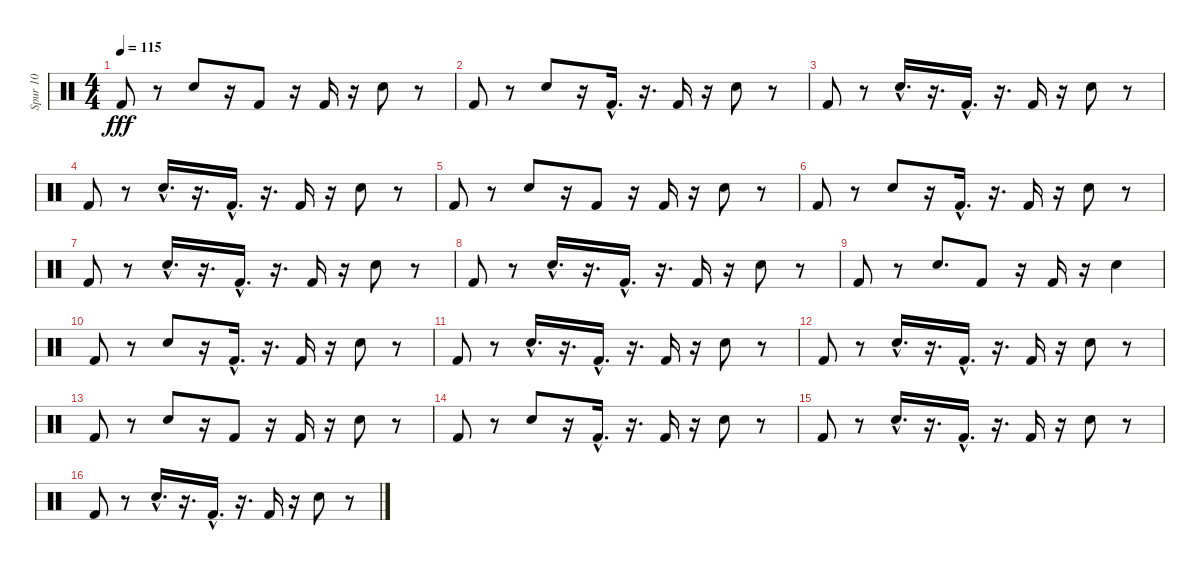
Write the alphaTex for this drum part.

\track ("Spur 10" "Spur 10") {instrument percussion}
\staff {score}
\articulation defaults
\ts (4 4)
\tempo 115
\clef neutral
\ks c "Kick (hit) 2".8{dy fff}
r.8 "Snare (hit) 2".8 r.16 "Kick (hit) 2".8 r.16 "Kick (hit) 2".16 r.16 "Snare (hit) 2".8 r.8 |
"Kick (hit) 2".8 r.8 "Snare (hit) 2".8 r.16 "Kick (hit) 2"{hac}.16{d} r.16{d} "Kick (hit) 2".16 r.16 "Snare (hit) 2".8 r.8 |
"Kick (hit) 2".8 r.8 "Snare (hit) 2"{hac}.16{d} r.16{d} "Kick (hit) 2"{hac}.16{d} r.16{d} "Kick (hit) 2".16 r.16 "Snare (hit) 2".8 r.8 |
"Kick (hit) 2".8 r.8 "Snare (hit) 2"{hac}.16{d} r.16{d} "Kick (hit) 2"{hac}.16{d} r.16{d} "Kick (hit) 2".16 r.16 "Snare (hit) 2".8 r.8 |
"Kick (hit) 2".8 r.8 "Snare (hit) 2".8 r.16 "Kick (hit) 2".8 r.16 "Kick (hit) 2".16 r.16 "Snare (hit) 2".8 r.8 |
"Kick (hit) 2".8 r.8 "Snare (hit) 2".8 r.16 "Kick (hit) 2"{hac}.16{d} r.16{d} "Kick (hit) 2".16 r.16 "Snare (hit) 2".8 r.8 |
"Kick (hit) 2".8 r.8 "Snare (hit) 2"{hac}.16{d} r.16{d} "Kick (hit) 2"{hac}.16{d} r.16{d} "Kick (hit) 2".16 r.16 "Snare (hit) 2".8 r.8 |
"Kick (hit) 2".8 r.8 "Snare (hit) 2"{hac}.16{d} r.16{d} "Kick (hit) 2"{hac}.16{d} r.16{d} "Kick (hit) 2".16 r.16 "Snare (hit) 2".8 r.8 |
"Kick (hit) 2".8 r.8 "Snare (hit) 2".8{d} "Kick (hit) 2".8 r.16 "Kick (hit) 2".16 r.16 "Snare (hit) 2".4 |
"Kick (hit) 2".8 r.8 "Snare (hit) 2".8 r.16 "Kick (hit) 2"{hac}.16{d} r.16{d} "Kick (hit) 2".16 r.16 "Snare (hit) 2".8 r.8 |
"Kick (hit) 2".8 r.8 "Snare (hit) 2"{hac}.16{d} r.16{d} "Kick (hit) 2"{hac}.16{d} r.16{d} "Kick (hit) 2".16 r.16 "Snare (hit) 2".8 r.8 |
"Kick (hit) 2".8 r.8 "Snare (hit) 2"{hac}.16{d} r.16{d} "Kick (hit) 2"{hac}.16{d} r.16{d} "Kick (hit) 2".16 r.16 "Snare (hit) 2".8 r.8 |
"Kick (hit) 2".8 r.8 "Snare (hit) 2".8 r.16 "Kick (hit) 2".8 r.16 "Kick (hit) 2".16 r.16 "Snare (hit) 2".8 r.8 |
"Kick (hit) 2".8 r.8 "Snare (hit) 2".8 r.16 "Kick (hit) 2"{hac}.16{d} r.16{d} "Kick (hit) 2".16 r.16 "Snare (hit) 2".8 r.8 |
"Kick (hit) 2".8 r.8 "Snare (hit) 2"{hac}.16{d} r.16{d} "Kick (hit) 2"{hac}.16{d} r.16{d} "Kick (hit) 2".16 r.16 "Snare (hit) 2".8 r.8 |
"Kick (hit) 2".8 r.8 "Snare (hit) 2"{hac}.16{d} r.16{d} "Kick (hit) 2"{hac}.16{d} r.16{d} "Kick (hit) 2".16 r.16 "Snare (hit) 2".8 r.8
